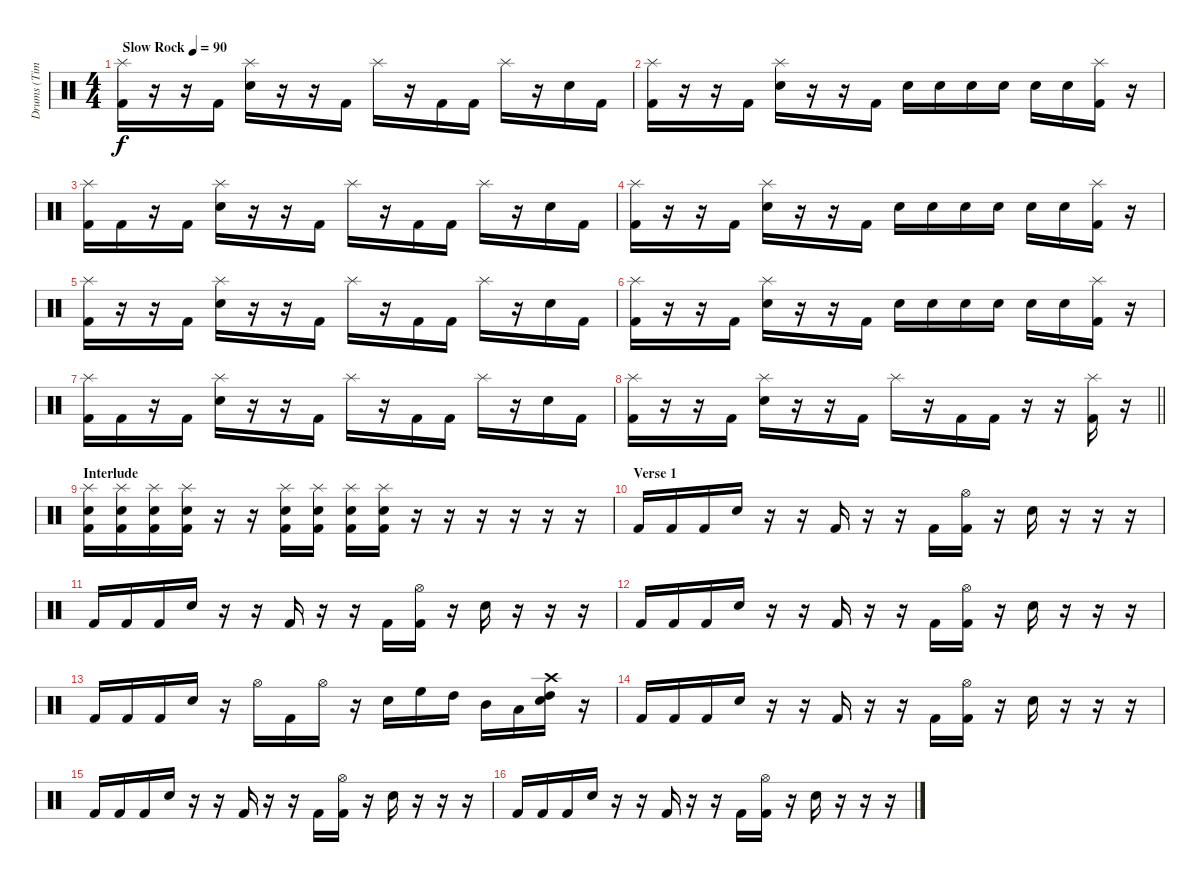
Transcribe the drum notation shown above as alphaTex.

\track ("Drums (Tim Watts)" "Drums (Tim") {instrument percussion}
\staff {score}
\articulation defaults
\ts (4 4)
\tempo (90 "Slow Rock")
\clef neutral
\ks c
("Splash (hit)" "Kick (hit) 2").16{dy f} r.16 r.16 "Kick (hit) 2".16 ("Splash (hit)" "Snare (hit) 2").16 r.16 r.16 "Kick (hit) 2".16 "Splash (hit)".16 r.16 "Kick (hit) 2".16 "Kick (hit) 2".16 "Splash (hit)".16 r.16 "Snare (hit) 2".16 "Kick (hit) 2".16 |
("Splash (hit)" "Kick (hit) 2").16 r.16 r.16 "Kick (hit) 2".16 ("Splash (hit)" "Snare (hit) 2").16 r.16 r.16 "Kick (hit) 2".16 "Snare (hit) 2".16 "Snare (hit) 2".16 "Snare (hit) 2".16 "Snare (hit) 2".16 "Snare (hit) 2".16 "Snare (hit) 2".16 ("Splash (hit)" "Kick (hit) 2").16 r.16 |
("Splash (hit)" "Kick (hit) 2").16 "Kick (hit) 2".16 r.16 "Kick (hit) 2".16 ("Splash (hit)" "Snare (hit) 2").16 r.16 r.16 "Kick (hit) 2".16 "Splash (hit)".16 r.16 "Kick (hit) 2".16 "Kick (hit) 2".16 "Splash (hit)".16 r.16 "Snare (hit) 2".16 "Kick (hit) 2".16 |
("Splash (hit)" "Kick (hit) 2").16 r.16 r.16 "Kick (hit) 2".16 ("Splash (hit)" "Snare (hit) 2").16 r.16 r.16 "Kick (hit) 2".16 "Snare (hit) 2".16 "Snare (hit) 2".16 "Snare (hit) 2".16 "Snare (hit) 2".16 "Snare (hit) 2".16 "Snare (hit) 2".16 ("Splash (hit)" "Kick (hit) 2").16 r.16 |
("Splash (hit)" "Kick (hit) 2").16 r.16 r.16 "Kick (hit) 2".16 ("Splash (hit)" "Snare (hit) 2").16 r.16 r.16 "Kick (hit) 2".16 "Splash (hit)".16 r.16 "Kick (hit) 2".16 "Kick (hit) 2".16 "Splash (hit)".16 r.16 "Snare (hit) 2".16 "Kick (hit) 2".16 |
("Splash (hit)" "Kick (hit) 2").16 r.16 r.16 "Kick (hit) 2".16 ("Splash (hit)" "Snare (hit) 2").16 r.16 r.16 "Kick (hit) 2".16 "Snare (hit) 2".16 "Snare (hit) 2".16 "Snare (hit) 2".16 "Snare (hit) 2".16 "Snare (hit) 2".16 "Snare (hit) 2".16 ("Splash (hit)" "Kick (hit) 2").16 r.16 |
("Splash (hit)" "Kick (hit) 2").16 "Kick (hit) 2".16 r.16 "Kick (hit) 2".16 ("Splash (hit)" "Snare (hit) 2").16 r.16 r.16 "Kick (hit) 2".16 "Splash (hit)".16 r.16 "Kick (hit) 2".16 "Kick (hit) 2".16 "Splash (hit)".16 r.16 "Snare (hit) 2".16 "Kick (hit) 2".16 |
\barLineRight lightlight
("Splash (hit)" "Kick (hit) 2").16 r.16 r.16 "Kick (hit) 2".16 ("Splash (hit)" "Snare (hit) 2").16 r.16 r.16 "Kick (hit) 2".16 "Splash (hit)".16 r.16 "Kick (hit) 2".16 "Kick (hit) 2".16 r.16 r.16 ("Splash (hit)" "Kick (hit) 2").16 r.16 |
\section ("" "Interlude")
("Splash (hit)" "Snare (hit) 2" "Kick (hit) 2").16 ("Splash (hit)" "Snare (hit) 2" "Kick (hit) 2").16 ("Splash (hit)" "Snare (hit) 2" "Kick (hit) 2").16 ("Splash (hit)" "Snare (hit) 2" "Kick (hit) 2").16 r.16 r.16 ("Splash (hit)" "Snare (hit) 2" "Kick (hit) 2").16 ("Splash (hit)" "Snare (hit) 2" "Kick (hit) 2").16 ("Splash (hit)" "Snare (hit) 2" "Kick (hit) 2").16 ("Splash (hit)" "Snare (hit) 2" "Kick (hit) 2").16 r.16 r.16 r.16 r.16 r.16 r.16 |
\section ("" "Verse 1")
"Kick (hit) 2".16 "Kick (hit) 2".16 "Kick (hit) 2".16 "Snare (hit) 2".16 r.16 r.16 "Kick (hit) 2".16 r.16 r.16 "Kick (hit) 2".16 ("Hi-Hat (open)" "Kick (hit) 2").16 r.16 "Snare (hit) 2".16 r.16 r.16 r.16 |
"Kick (hit) 2".16 "Kick (hit) 2".16 "Kick (hit) 2".16 "Snare (hit) 2".16 r.16 r.16 "Kick (hit) 2".16 r.16 r.16 "Kick (hit) 2".16 ("Hi-Hat (open)" "Kick (hit) 2").16 r.16 "Snare (hit) 2".16 r.16 r.16 r.16 |
"Kick (hit) 2".16 "Kick (hit) 2".16 "Kick (hit) 2".16 "Snare (hit) 2".16 r.16 r.16 "Kick (hit) 2".16 r.16 r.16 "Kick (hit) 2".16 ("Hi-Hat (open)" "Kick (hit) 2").16 r.16 "Snare (hit) 2".16 r.16 r.16 r.16 |
"Kick (hit) 2".16 "Kick (hit) 2".16 "Kick (hit) 2".16 "Snare (hit) 2".16 r.16 "Hi-Hat (open)".16 "Kick (hit) 2".16 "Hi-Hat (open)".16 r.16 "Snare (hit) 2".16 "High Floor Tom (hit)".16 "High Tom (hit)".16 "Mid Tom (hit)".16 "Low Tom (hit)".16 ("Snare (hit) 2" "Crash high (hit)" "High Tom (hit)").16 r.16 |
"Kick (hit) 2".16 "Kick (hit) 2".16 "Kick (hit) 2".16 "Snare (hit) 2".16 r.16 r.16 "Kick (hit) 2".16 r.16 r.16 "Kick (hit) 2".16 ("Hi-Hat (open)" "Kick (hit) 2").16 r.16 "Snare (hit) 2".16 r.16 r.16 r.16 |
"Kick (hit) 2".16 "Kick (hit) 2".16 "Kick (hit) 2".16 "Snare (hit) 2".16 r.16 r.16 "Kick (hit) 2".16 r.16 r.16 "Kick (hit) 2".16 ("Hi-Hat (open)" "Kick (hit) 2").16 r.16 "Snare (hit) 2".16 r.16 r.16 r.16 |
"Kick (hit) 2".16 "Kick (hit) 2".16 "Kick (hit) 2".16 "Snare (hit) 2".16 r.16 r.16 "Kick (hit) 2".16 r.16 r.16 "Kick (hit) 2".16 ("Hi-Hat (open)" "Kick (hit) 2").16 r.16 "Snare (hit) 2".16 r.16 r.16 r.16
